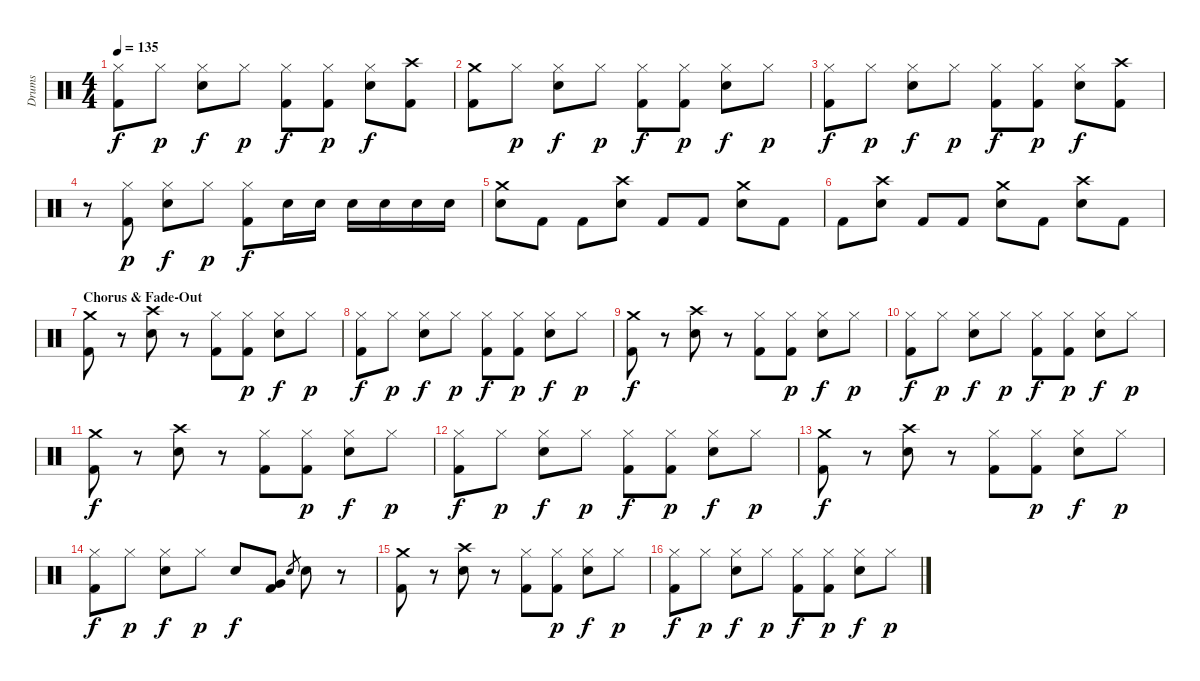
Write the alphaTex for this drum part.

\track ("Drums" "Drums") {instrument percussion}
\staff {score}
\articulation defaults
\ts (4 4)
\tempo 135
\clef neutral
\ks c
("Hi-Hat (closed)" "Kick (hit) 2").8{dy f} "Hi-Hat (closed)".8{dy p} ("Hi-Hat (closed)" "Snare (hit) 2").8{dy f} "Hi-Hat (closed)".8{dy p} ("Hi-Hat (closed)" "Kick (hit) 2").8{dy f} ("Hi-Hat (closed)" "Kick (hit) 2").8{dy p} ("Hi-Hat (closed)" "Snare (hit) 2").8{dy f} ("Crash high (hit)" "Kick (hit) 2").8 |
("Crash medium (hit)" "Kick (hit) 2").8 "Hi-Hat (closed)".8{dy p} ("Hi-Hat (closed)" "Snare (hit) 2").8{dy f} "Hi-Hat (closed)".8{dy p} ("Hi-Hat (closed)" "Kick (hit) 2").8{dy f} ("Hi-Hat (closed)" "Kick (hit) 2").8{dy p} ("Hi-Hat (closed)" "Snare (hit) 2").8{dy f} "Hi-Hat (closed)".8{dy p} |
("Hi-Hat (closed)" "Kick (hit) 2").8{dy f} "Hi-Hat (closed)".8{dy p} ("Hi-Hat (closed)" "Snare (hit) 2").8{dy f} "Hi-Hat (closed)".8{dy p} ("Hi-Hat (closed)" "Kick (hit) 2").8{dy f} ("Hi-Hat (closed)" "Kick (hit) 2").8{dy p} ("Hi-Hat (closed)" "Snare (hit) 2").8{dy f} ("Crash high (hit)" "Kick (hit) 2").8 |
r.8 ("Hi-Hat (closed)" "Kick (hit) 2").8{dy p} ("Hi-Hat (closed)" "Snare (hit) 2").8{dy f} "Hi-Hat (closed)".8{dy p} ("Hi-Hat (closed)" "Kick (hit) 2").8{dy f} "Snare (hit) 2".16 "Snare (hit) 2".16 "Snare (hit) 2".16 "Snare (hit) 2".16 "Snare (hit) 2".16 "Snare (hit) 2".16 |
("Crash medium (hit)" "Snare (hit) 2").8 "Kick (hit) 2".8 "Kick (hit) 2".8 ("Crash high (hit)" "Snare (hit) 2").8 "Kick (hit) 2".8 "Kick (hit) 2".8 ("Crash medium (hit)" "Snare (hit) 2").8 "Kick (hit) 2".8 |
"Kick (hit) 2".8 ("Crash high (hit)" "Snare (hit) 2").8 "Kick (hit) 2".8 "Kick (hit) 2".8 ("Crash medium (hit)" "Snare (hit) 2").8 "Kick (hit) 2".8 ("Crash high (hit)" "Snare (hit) 2").8 "Kick (hit) 2".8 |
\section ("" "Chorus & Fade-Out")
("Crash medium (hit)" "Kick (hit) 2").8 r.8 ("Crash high (hit)" "Snare (hit) 2").8 r.8 ("Hi-Hat (closed)" "Kick (hit) 2").8 ("Hi-Hat (closed)" "Kick (hit) 2").8{dy p} ("Hi-Hat (closed)" "Snare (hit) 2").8{dy f} "Hi-Hat (closed)".8{dy p} |
("Hi-Hat (closed)" "Kick (hit) 2").8{dy f} "Hi-Hat (closed)".8{dy p} ("Hi-Hat (closed)" "Snare (hit) 2").8{dy f} "Hi-Hat (closed)".8{dy p} ("Hi-Hat (closed)" "Kick (hit) 2").8{dy f} ("Hi-Hat (closed)" "Kick (hit) 2").8{dy p} ("Hi-Hat (closed)" "Snare (hit) 2").8{dy f} "Hi-Hat (closed)".8{dy p} |
("Crash medium (hit)" "Kick (hit) 2").8{dy f} r.8 ("Crash high (hit)" "Snare (hit) 2").8 r.8 ("Hi-Hat (closed)" "Kick (hit) 2").8 ("Hi-Hat (closed)" "Kick (hit) 2").8{dy p} ("Hi-Hat (closed)" "Snare (hit) 2").8{dy f} "Hi-Hat (closed)".8{dy p} |
("Hi-Hat (closed)" "Kick (hit) 2").8{dy f} "Hi-Hat (closed)".8{dy p} ("Hi-Hat (closed)" "Snare (hit) 2").8{dy f} "Hi-Hat (closed)".8{dy p} ("Hi-Hat (closed)" "Kick (hit) 2").8{dy f} ("Hi-Hat (closed)" "Kick (hit) 2").8{dy p} ("Hi-Hat (closed)" "Snare (hit) 2").8{dy f} "Hi-Hat (closed)".8{dy p} |
("Crash medium (hit)" "Kick (hit) 2").8{dy f} r.8 ("Crash high (hit)" "Snare (hit) 2").8 r.8 ("Hi-Hat (closed)" "Kick (hit) 2").8 ("Hi-Hat (closed)" "Kick (hit) 2").8{dy p} ("Hi-Hat (closed)" "Snare (hit) 2").8{dy f} "Hi-Hat (closed)".8{dy p} |
("Hi-Hat (closed)" "Kick (hit) 2").8{dy f} "Hi-Hat (closed)".8{dy p} ("Hi-Hat (closed)" "Snare (hit) 2").8{dy f} "Hi-Hat (closed)".8{dy p} ("Hi-Hat (closed)" "Kick (hit) 2").8{dy f} ("Hi-Hat (closed)" "Kick (hit) 2").8{dy p} ("Hi-Hat (closed)" "Snare (hit) 2").8{dy f} "Hi-Hat (closed)".8{dy p} |
("Crash medium (hit)" "Kick (hit) 2").8{dy f} r.8 ("Crash high (hit)" "Snare (hit) 2").8 r.8 ("Hi-Hat (closed)" "Kick (hit) 2").8 ("Hi-Hat (closed)" "Kick (hit) 2").8{dy p} ("Hi-Hat (closed)" "Snare (hit) 2").8{dy f} "Hi-Hat (closed)".8{dy p} |
("Hi-Hat (closed)" "Kick (hit) 2").8{dy f} "Hi-Hat (closed)".8{dy p} ("Hi-Hat (closed)" "Snare (hit) 2").8{dy f} "Hi-Hat (closed)".8{dy p} "Snare (hit) 2".8{dy f} ("Very Low Tom (hit)" "Kick (hit) 2").8 "Snare (hit) 2".8{gr} "Snare (hit) 2".8 r.8 |
("Crash medium (hit)" "Kick (hit) 2").8 r.8 ("Crash high (hit)" "Snare (hit) 2").8 r.8 ("Hi-Hat (closed)" "Kick (hit) 2").8 ("Hi-Hat (closed)" "Kick (hit) 2").8{dy p} ("Hi-Hat (closed)" "Snare (hit) 2").8{dy f} "Hi-Hat (closed)".8{dy p} |
("Hi-Hat (closed)" "Kick (hit) 2").8{dy f} "Hi-Hat (closed)".8{dy p} ("Hi-Hat (closed)" "Snare (hit) 2").8{dy f} "Hi-Hat (closed)".8{dy p} ("Hi-Hat (closed)" "Kick (hit) 2").8{dy f} ("Hi-Hat (closed)" "Kick (hit) 2").8{dy p} ("Hi-Hat (closed)" "Snare (hit) 2").8{dy f} "Hi-Hat (closed)".8{dy p}
